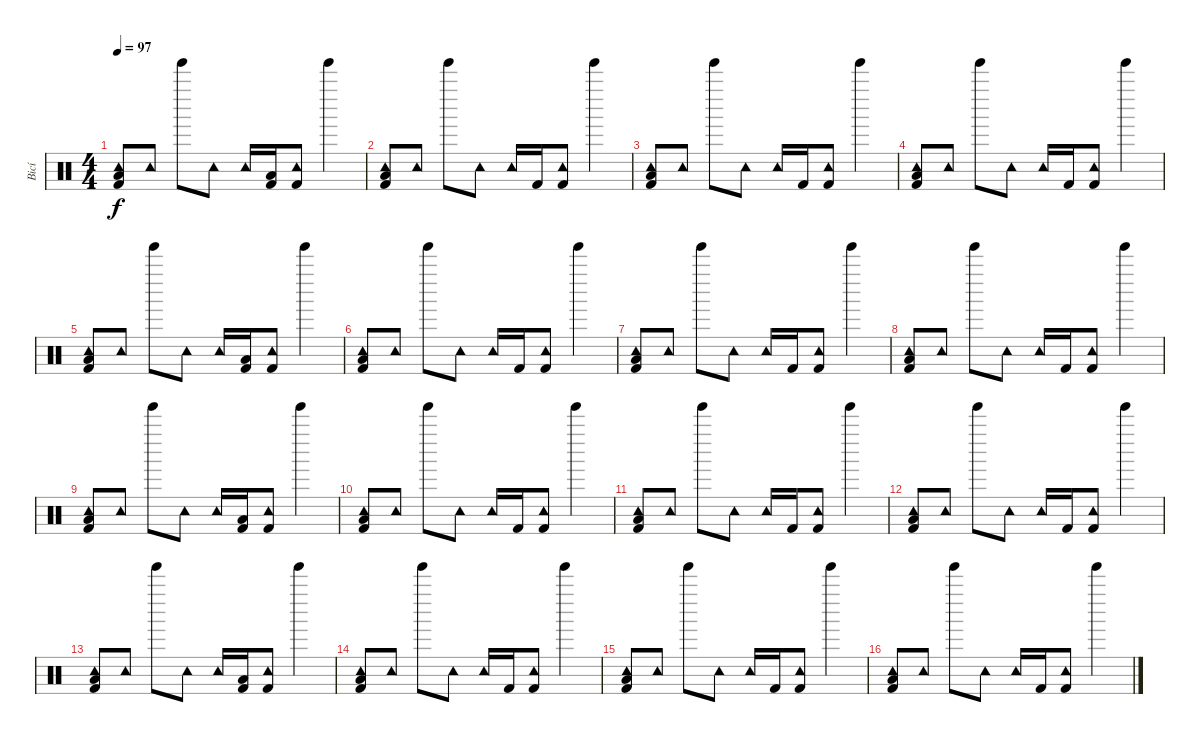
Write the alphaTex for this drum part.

\track ("Bicí" "Bicí") {instrument percussion}
\staff {score}
\articulation defaults
\ts (4 4)
\tempo 97
\clef neutral
\ks c
("Tambourine (hit)" "Low Floor Tom (hit)" "Kick (hit) 2").8{dy f} "Tambourine (hit)".8 "Tinkle Bell (hit)".8 "Tambourine (hit)".8 "Tambourine (hit)".16 ("Low Floor Tom (hit)" "Kick (hit) 2").16 ("Tambourine (hit)" "Kick (hit) 2").8 "Tinkle Bell (hit)".4 |
("Tambourine (hit)" "Low Floor Tom (hit)" "Kick (hit) 2").8 "Tambourine (hit)".8 "Tinkle Bell (hit)".8 "Tambourine (hit)".8 "Tambourine (hit)".16 "Kick (hit) 2".16 ("Tambourine (hit)" "Kick (hit) 2").8 "Tinkle Bell (hit)".4 |
("Tambourine (hit)" "Low Floor Tom (hit)" "Kick (hit) 2").8 "Tambourine (hit)".8 "Tinkle Bell (hit)".8 "Tambourine (hit)".8 "Tambourine (hit)".16 "Kick (hit) 2".16 ("Tambourine (hit)" "Kick (hit) 2").8 "Tinkle Bell (hit)".4 |
("Tambourine (hit)" "Low Floor Tom (hit)" "Kick (hit) 2").8 "Tambourine (hit)".8 "Tinkle Bell (hit)".8 "Tambourine (hit)".8 "Tambourine (hit)".16 "Kick (hit) 2".16 ("Tambourine (hit)" "Kick (hit) 2").8 "Tinkle Bell (hit)".4 |
("Tambourine (hit)" "Low Floor Tom (hit)" "Kick (hit) 2").8 "Tambourine (hit)".8 "Tinkle Bell (hit)".8 "Tambourine (hit)".8 "Tambourine (hit)".16 ("Low Floor Tom (hit)" "Kick (hit) 2").16 ("Tambourine (hit)" "Kick (hit) 2").8 "Tinkle Bell (hit)".4 |
("Tambourine (hit)" "Low Floor Tom (hit)" "Kick (hit) 2").8 "Tambourine (hit)".8 "Tinkle Bell (hit)".8 "Tambourine (hit)".8 "Tambourine (hit)".16 "Kick (hit) 2".16 ("Tambourine (hit)" "Kick (hit) 2").8 "Tinkle Bell (hit)".4 |
("Tambourine (hit)" "Low Floor Tom (hit)" "Kick (hit) 2").8 "Tambourine (hit)".8 "Tinkle Bell (hit)".8 "Tambourine (hit)".8 "Tambourine (hit)".16 "Kick (hit) 2".16 ("Tambourine (hit)" "Kick (hit) 2").8 "Tinkle Bell (hit)".4 |
("Tambourine (hit)" "Low Floor Tom (hit)" "Kick (hit) 2").8 "Tambourine (hit)".8 "Tinkle Bell (hit)".8 "Tambourine (hit)".8 "Tambourine (hit)".16 "Kick (hit) 2".16 ("Tambourine (hit)" "Kick (hit) 2").8 "Tinkle Bell (hit)".4 |
("Tambourine (hit)" "Low Floor Tom (hit)" "Kick (hit) 2").8 "Tambourine (hit)".8 "Tinkle Bell (hit)".8 "Tambourine (hit)".8 "Tambourine (hit)".16 ("Low Floor Tom (hit)" "Kick (hit) 2").16 ("Tambourine (hit)" "Kick (hit) 2").8 "Tinkle Bell (hit)".4 |
("Tambourine (hit)" "Low Floor Tom (hit)" "Kick (hit) 2").8 "Tambourine (hit)".8 "Tinkle Bell (hit)".8 "Tambourine (hit)".8 "Tambourine (hit)".16 "Kick (hit) 2".16 ("Tambourine (hit)" "Kick (hit) 2").8 "Tinkle Bell (hit)".4 |
("Tambourine (hit)" "Low Floor Tom (hit)" "Kick (hit) 2").8 "Tambourine (hit)".8 "Tinkle Bell (hit)".8 "Tambourine (hit)".8 "Tambourine (hit)".16 "Kick (hit) 2".16 ("Tambourine (hit)" "Kick (hit) 2").8 "Tinkle Bell (hit)".4 |
("Tambourine (hit)" "Low Floor Tom (hit)" "Kick (hit) 2").8 "Tambourine (hit)".8 "Tinkle Bell (hit)".8 "Tambourine (hit)".8 "Tambourine (hit)".16 "Kick (hit) 2".16 ("Tambourine (hit)" "Kick (hit) 2").8 "Tinkle Bell (hit)".4 |
("Tambourine (hit)" "Low Floor Tom (hit)" "Kick (hit) 2").8 "Tambourine (hit)".8 "Tinkle Bell (hit)".8 "Tambourine (hit)".8 "Tambourine (hit)".16 ("Low Floor Tom (hit)" "Kick (hit) 2").16 ("Tambourine (hit)" "Kick (hit) 2").8 "Tinkle Bell (hit)".4 |
("Tambourine (hit)" "Low Floor Tom (hit)" "Kick (hit) 2").8 "Tambourine (hit)".8 "Tinkle Bell (hit)".8 "Tambourine (hit)".8 "Tambourine (hit)".16 "Kick (hit) 2".16 ("Tambourine (hit)" "Kick (hit) 2").8 "Tinkle Bell (hit)".4 |
("Tambourine (hit)" "Low Floor Tom (hit)" "Kick (hit) 2").8 "Tambourine (hit)".8 "Tinkle Bell (hit)".8 "Tambourine (hit)".8 "Tambourine (hit)".16 "Kick (hit) 2".16 ("Tambourine (hit)" "Kick (hit) 2").8 "Tinkle Bell (hit)".4 |
("Tambourine (hit)" "Low Floor Tom (hit)" "Kick (hit) 2").8 "Tambourine (hit)".8 "Tinkle Bell (hit)".8 "Tambourine (hit)".8 "Tambourine (hit)".16 "Kick (hit) 2".16 ("Tambourine (hit)" "Kick (hit) 2").8 "Tinkle Bell (hit)".4
